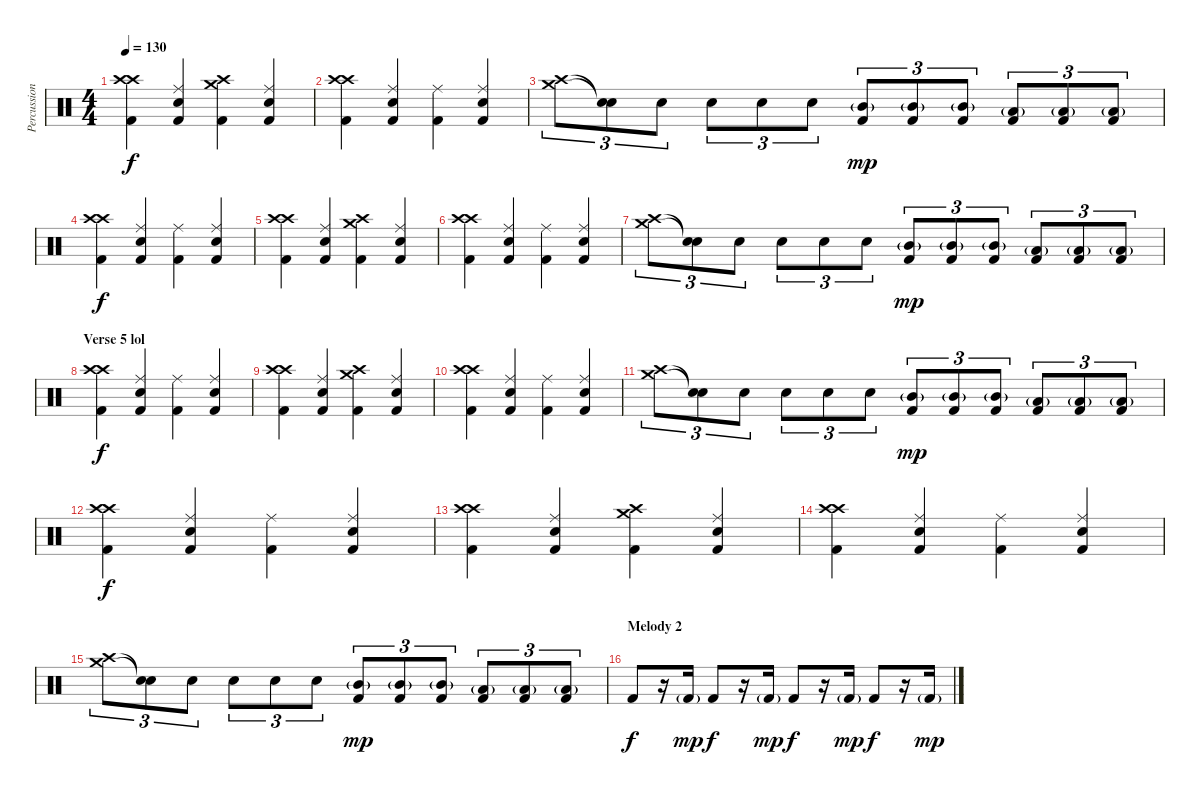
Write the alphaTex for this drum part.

\track ("Percussion - Rhythm" "Percussion") {instrument percussion}
\staff {score}
\articulation defaults
\ts (4 4)
\tempo 130
\clef neutral
\ks c
("Crash high (hit)" "Crash high (hit)" "Kick (hit) 2").4{dy f} ("Ride (middle)" "Snare (hit) 2" "Kick (hit) 2").4 ("Crash medium (hit)" "Crash high (hit)" "Kick (hit) 2").4 ("Ride (middle)" "Snare (hit) 2" "Kick (hit) 2").4 |
("Crash high (hit)" "Crash high (hit)" "Kick (hit) 2").4{volume 13} ("Ride (middle)" "Snare (hit) 2" "Kick (hit) 2").4 ("Ride (middle)" "Kick (hit) 2").4 ("Ride (middle)" "Snare (hit) 2" "Kick (hit) 2").4 |
("Crash medium (hit)" "Crash high (hit)").8{tu (3 2)} ("Snare (hit)"{t} "Snare (hit)"{t}).8{tu (3 2)} "Snare (hit) 2".8{tu (3 2)} "Snare (hit) 2".8{tu (3 2)} "Snare (hit) 2".8{tu (3 2)} "Snare (hit) 2".8{tu (3 2)} ("Mid Tom (hit)"{g} "Kick (hit) 2").8{tu (3 2) dy mp} ("Mid Tom (hit)"{g} "Kick (hit) 2").8{tu (3 2)} ("Mid Tom (hit)"{g} "Kick (hit) 2").8{tu (3 2)} ("Low Tom (hit)"{g} "Kick (hit) 2").8{tu (3 2)} ("Low Tom (hit)"{g} "Kick (hit) 2").8{tu (3 2)} ("Low Tom (hit)"{g} "Kick (hit) 2").8{tu (3 2)} |
("Crash high (hit)" "Crash high (hit)" "Kick (hit) 2").4{dy f volume 13} ("Ride (middle)" "Snare (hit) 2" "Kick (hit) 2").4 ("Ride (middle)" "Kick (hit) 2").4 ("Ride (middle)" "Snare (hit) 2" "Kick (hit) 2").4 |
("Crash high (hit)" "Crash high (hit)" "Kick (hit) 2").4 ("Ride (middle)" "Snare (hit) 2" "Kick (hit) 2").4 ("Crash medium (hit)" "Crash high (hit)" "Kick (hit) 2").4 ("Ride (middle)" "Snare (hit) 2" "Kick (hit) 2").4 |
("Crash high (hit)" "Crash high (hit)" "Kick (hit) 2").4{volume 13} ("Ride (middle)" "Snare (hit) 2" "Kick (hit) 2").4 ("Ride (middle)" "Kick (hit) 2").4 ("Ride (middle)" "Snare (hit) 2" "Kick (hit) 2").4 |
("Crash medium (hit)" "Crash high (hit)").8{tu (3 2)} ("Snare (hit)"{t} "Snare (hit)"{t}).8{tu (3 2)} "Snare (hit) 2".8{tu (3 2)} "Snare (hit) 2".8{tu (3 2)} "Snare (hit) 2".8{tu (3 2)} "Snare (hit) 2".8{tu (3 2)} ("Mid Tom (hit)"{g} "Kick (hit) 2").8{tu (3 2) dy mp} ("Mid Tom (hit)"{g} "Kick (hit) 2").8{tu (3 2)} ("Mid Tom (hit)"{g} "Kick (hit) 2").8{tu (3 2)} ("Low Tom (hit)"{g} "Kick (hit) 2").8{tu (3 2)} ("Low Tom (hit)"{g} "Kick (hit) 2").8{tu (3 2)} ("Low Tom (hit)"{g} "Kick (hit) 2").8{tu (3 2)} |
\section ("" "Verse 5 lol")
("Crash high (hit)" "Crash high (hit)" "Kick (hit) 2").4{dy f volume 13} ("Ride (middle)" "Snare (hit) 2" "Kick (hit) 2").4 ("Ride (middle)" "Kick (hit) 2").4 ("Ride (middle)" "Snare (hit) 2" "Kick (hit) 2").4 |
("Crash high (hit)" "Crash high (hit)" "Kick (hit) 2").4 ("Ride (middle)" "Snare (hit) 2" "Kick (hit) 2").4 ("Crash medium (hit)" "Crash high (hit)" "Kick (hit) 2").4 ("Ride (middle)" "Snare (hit) 2" "Kick (hit) 2").4 |
("Crash high (hit)" "Crash high (hit)" "Kick (hit) 2").4{volume 13} ("Ride (middle)" "Snare (hit) 2" "Kick (hit) 2").4 ("Ride (middle)" "Kick (hit) 2").4 ("Ride (middle)" "Snare (hit) 2" "Kick (hit) 2").4 |
("Crash medium (hit)" "Crash high (hit)").8{tu (3 2)} ("Snare (hit)"{t} "Snare (hit)"{t}).8{tu (3 2)} "Snare (hit) 2".8{tu (3 2)} "Snare (hit) 2".8{tu (3 2)} "Snare (hit) 2".8{tu (3 2)} "Snare (hit) 2".8{tu (3 2)} ("Mid Tom (hit)"{g} "Kick (hit) 2").8{tu (3 2) dy mp} ("Mid Tom (hit)"{g} "Kick (hit) 2").8{tu (3 2)} ("Mid Tom (hit)"{g} "Kick (hit) 2").8{tu (3 2)} ("Low Tom (hit)"{g} "Kick (hit) 2").8{tu (3 2)} ("Low Tom (hit)"{g} "Kick (hit) 2").8{tu (3 2)} ("Low Tom (hit)"{g} "Kick (hit) 2").8{tu (3 2)} |
("Crash high (hit)" "Crash high (hit)" "Kick (hit) 2").4{dy f volume 13} ("Ride (middle)" "Snare (hit) 2" "Kick (hit) 2").4 ("Ride (middle)" "Kick (hit) 2").4 ("Ride (middle)" "Snare (hit) 2" "Kick (hit) 2").4 |
("Crash high (hit)" "Crash high (hit)" "Kick (hit) 2").4 ("Ride (middle)" "Snare (hit) 2" "Kick (hit) 2").4 ("Crash medium (hit)" "Crash high (hit)" "Kick (hit) 2").4 ("Ride (middle)" "Snare (hit) 2" "Kick (hit) 2").4 |
("Crash high (hit)" "Crash high (hit)" "Kick (hit) 2").4{volume 13} ("Ride (middle)" "Snare (hit) 2" "Kick (hit) 2").4 ("Ride (middle)" "Kick (hit) 2").4 ("Ride (middle)" "Snare (hit) 2" "Kick (hit) 2").4 |
("Crash medium (hit)" "Crash high (hit)").8{tu (3 2)} ("Snare (hit)"{t} "Snare (hit)"{t}).8{tu (3 2)} "Snare (hit) 2".8{tu (3 2)} "Snare (hit) 2".8{tu (3 2)} "Snare (hit) 2".8{tu (3 2)} "Snare (hit) 2".8{tu (3 2)} ("Mid Tom (hit)"{g} "Kick (hit) 2").8{tu (3 2) dy mp} ("Mid Tom (hit)"{g} "Kick (hit) 2").8{tu (3 2)} ("Mid Tom (hit)"{g} "Kick (hit) 2").8{tu (3 2)} ("Low Tom (hit)"{g} "Kick (hit) 2").8{tu (3 2)} ("Low Tom (hit)"{g} "Kick (hit) 2").8{tu (3 2)} ("Low Tom (hit)"{g} "Kick (hit) 2").8{tu (3 2)} |
\section ("" "Melody 2")
"Kick (hit) 2".8{dy f} r.16 "Kick (hit) 2"{g}.16{dy mp} "Kick (hit) 2".8{dy f} r.16 "Kick (hit) 2"{g}.16{dy mp} "Kick (hit) 2".8{dy f} r.16 "Kick (hit) 2"{g}.16{dy mp} "Kick (hit) 2".8{dy f} r.16 "Kick (hit) 2"{g}.16{dy mp}
